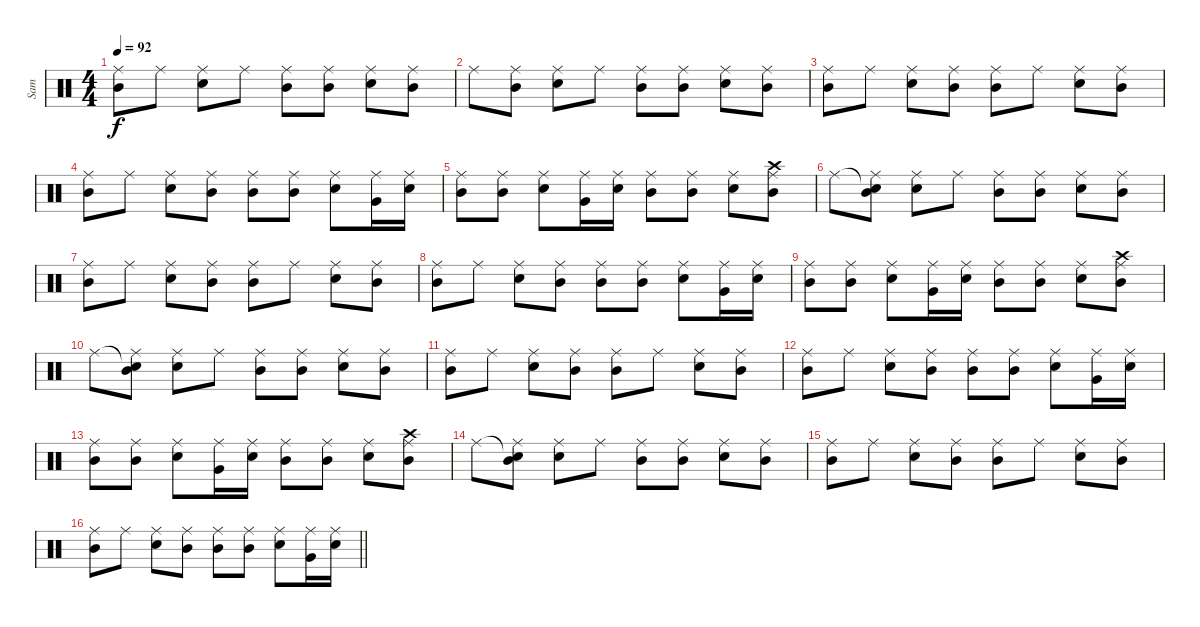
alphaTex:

\track ("Sam" "Sam") {instrument percussion}
\staff {score}
\articulation defaults
\ts (4 4)
\tempo 92
\clef neutral
\ks c
("Mid Tom (hit)" "Ride (middle)").8{dy f} "Ride (middle)".8 ("Electric Snare (hit)" "Ride (middle)").8 "Ride (middle)".8 ("Mid Tom (hit)" "Ride (middle)").8 ("Mid Tom (hit)" "Ride (middle)").8 ("Electric Snare (hit)" "Ride (middle)").8 ("Mid Tom (hit)" "Ride (middle)").8 |
"Ride (middle)".8 ("Mid Tom (hit)" "Ride (middle)").8 ("Electric Snare (hit)" "Ride (middle)").8 "Ride (middle)".8 ("Mid Tom (hit)" "Ride (middle)").8 ("Mid Tom (hit)" "Ride (middle)").8 ("Electric Snare (hit)" "Ride (middle)").8 ("Mid Tom (hit)" "Ride (middle)").8 |
("Mid Tom (hit)" "Ride (middle)").8 "Ride (middle)".8 ("Electric Snare (hit)" "Ride (middle)").8 ("Mid Tom (hit)" "Ride (middle)").8 ("Mid Tom (hit)" "Ride (middle)").8 "Ride (middle)".8 ("Electric Snare (hit)" "Ride (middle)").8 ("Mid Tom (hit)" "Ride (middle)").8 |
("Mid Tom (hit)" "Ride (middle)").8 "Ride (middle)".8 ("Electric Snare (hit)" "Ride (middle)").8 ("Mid Tom (hit)" "Ride (middle)").8 ("Mid Tom (hit)" "Ride (middle)").8 ("Mid Tom (hit)" "Ride (middle)").8 ("Electric Snare (hit)" "Ride (middle)").8 ("Very Low Tom (hit)" "Ride (middle)").16 ("Electric Snare (hit)" "Ride (middle)").16 |
("Mid Tom (hit)" "Ride (middle)").8 ("Mid Tom (hit)" "Ride (middle)").8 ("Electric Snare (hit)" "Ride (middle)").8 ("Very Low Tom (hit)" "Ride (middle)").16 ("Electric Snare (hit)" "Ride (middle)").16 ("Mid Tom (hit)" "Ride (middle)").8 ("Mid Tom (hit)" "Ride (middle)").8 ("Electric Snare (hit)" "Ride (middle)").8 ("Crash high (hit)" "Mid Tom (hit)" "Ride (middle)").8 |
"Ride (middle)".8 ("Snare (hit)"{t} "Mid Tom (hit)" "Ride (middle)").8 ("Electric Snare (hit)" "Ride (middle)").8 "Ride (middle)".8 ("Mid Tom (hit)" "Ride (middle)").8 ("Mid Tom (hit)" "Ride (middle)").8 ("Electric Snare (hit)" "Ride (middle)").8 ("Mid Tom (hit)" "Ride (middle)").8 |
("Mid Tom (hit)" "Ride (middle)").8 "Ride (middle)".8 ("Electric Snare (hit)" "Ride (middle)").8 ("Mid Tom (hit)" "Ride (middle)").8 ("Mid Tom (hit)" "Ride (middle)").8 "Ride (middle)".8 ("Electric Snare (hit)" "Ride (middle)").8 ("Mid Tom (hit)" "Ride (middle)").8 |
("Mid Tom (hit)" "Ride (middle)").8 "Ride (middle)".8 ("Electric Snare (hit)" "Ride (middle)").8 ("Mid Tom (hit)" "Ride (middle)").8 ("Mid Tom (hit)" "Ride (middle)").8 ("Mid Tom (hit)" "Ride (middle)").8 ("Electric Snare (hit)" "Ride (middle)").8 ("Very Low Tom (hit)" "Ride (middle)").16 ("Electric Snare (hit)" "Ride (middle)").16 |
("Mid Tom (hit)" "Ride (middle)").8 ("Mid Tom (hit)" "Ride (middle)").8 ("Electric Snare (hit)" "Ride (middle)").8 ("Very Low Tom (hit)" "Ride (middle)").16 ("Electric Snare (hit)" "Ride (middle)").16 ("Mid Tom (hit)" "Ride (middle)").8 ("Mid Tom (hit)" "Ride (middle)").8 ("Electric Snare (hit)" "Ride (middle)").8 ("Crash high (hit)" "Mid Tom (hit)" "Ride (middle)").8 |
"Ride (middle)".8 ("Snare (hit)"{t} "Mid Tom (hit)" "Ride (middle)").8 ("Electric Snare (hit)" "Ride (middle)").8 "Ride (middle)".8 ("Mid Tom (hit)" "Ride (middle)").8 ("Mid Tom (hit)" "Ride (middle)").8 ("Electric Snare (hit)" "Ride (middle)").8 ("Mid Tom (hit)" "Ride (middle)").8 |
("Mid Tom (hit)" "Ride (middle)").8 "Ride (middle)".8 ("Electric Snare (hit)" "Ride (middle)").8 ("Mid Tom (hit)" "Ride (middle)").8 ("Mid Tom (hit)" "Ride (middle)").8 "Ride (middle)".8 ("Electric Snare (hit)" "Ride (middle)").8 ("Mid Tom (hit)" "Ride (middle)").8 |
("Mid Tom (hit)" "Ride (middle)").8 "Ride (middle)".8 ("Electric Snare (hit)" "Ride (middle)").8 ("Mid Tom (hit)" "Ride (middle)").8 ("Mid Tom (hit)" "Ride (middle)").8 ("Mid Tom (hit)" "Ride (middle)").8 ("Electric Snare (hit)" "Ride (middle)").8 ("Very Low Tom (hit)" "Ride (middle)").16 ("Electric Snare (hit)" "Ride (middle)").16 |
("Mid Tom (hit)" "Ride (middle)").8 ("Mid Tom (hit)" "Ride (middle)").8 ("Electric Snare (hit)" "Ride (middle)").8 ("Very Low Tom (hit)" "Ride (middle)").16 ("Electric Snare (hit)" "Ride (middle)").16 ("Mid Tom (hit)" "Ride (middle)").8 ("Mid Tom (hit)" "Ride (middle)").8 ("Electric Snare (hit)" "Ride (middle)").8 ("Crash high (hit)" "Mid Tom (hit)" "Ride (middle)").8 |
"Ride (middle)".8 ("Snare (hit)"{t} "Mid Tom (hit)" "Ride (middle)").8 ("Electric Snare (hit)" "Ride (middle)").8 "Ride (middle)".8 ("Mid Tom (hit)" "Ride (middle)").8 ("Mid Tom (hit)" "Ride (middle)").8 ("Electric Snare (hit)" "Ride (middle)").8 ("Mid Tom (hit)" "Ride (middle)").8 |
("Mid Tom (hit)" "Ride (middle)").8 "Ride (middle)".8 ("Electric Snare (hit)" "Ride (middle)").8 ("Mid Tom (hit)" "Ride (middle)").8 ("Mid Tom (hit)" "Ride (middle)").8 "Ride (middle)".8 ("Electric Snare (hit)" "Ride (middle)").8 ("Mid Tom (hit)" "Ride (middle)").8 |
\barLineRight lightlight
("Mid Tom (hit)" "Ride (middle)").8 "Ride (middle)".8 ("Electric Snare (hit)" "Ride (middle)").8 ("Mid Tom (hit)" "Ride (middle)").8 ("Mid Tom (hit)" "Ride (middle)").8 ("Mid Tom (hit)" "Ride (middle)").8 ("Electric Snare (hit)" "Ride (middle)").8 ("Very Low Tom (hit)" "Ride (middle)").16 ("Electric Snare (hit)" "Ride (middle)").16
